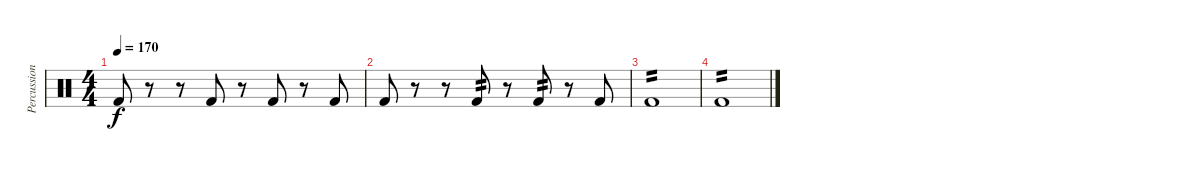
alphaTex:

\track ("Percussion" "Percussion") {solo instrument percussion}
\staff {score}
\articulation defaults
\ts (4 4)
\tempo 170
\clef neutral
\ks c "Kick (hit) 2".8{dy f}
r.8 r.8 "Kick (hit) 2".8 r.8 "Kick (hit) 2".8 r.8 "Kick (hit) 2".8 |
"Kick (hit) 2".8 r.8 r.8 "Kick (hit) 2".8{tp 2} r.8 "Kick (hit) 2".8{tp 2} r.8 "Kick (hit) 2".8 |
"Kick (hit) 2".1{tp 2} |
"Kick (hit) 2".1{tp 2}
